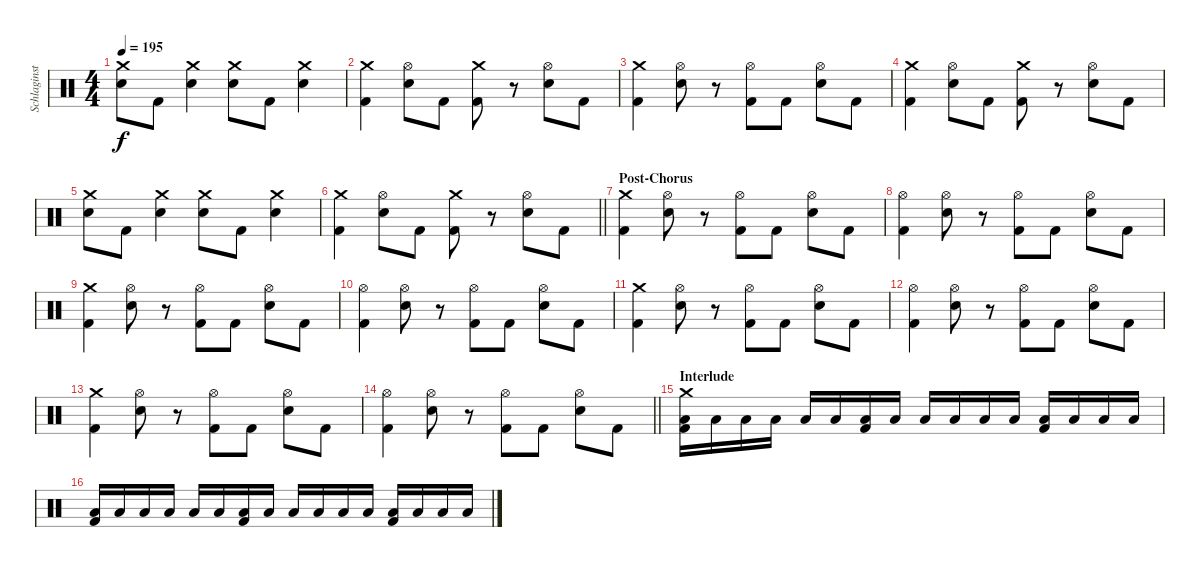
\track ("Schlaginstrumente - Auswahl" "Schlaginst") {instrument percussion}
\staff {score}
\articulation defaults
\ts (4 4)
\tempo 195
\clef neutral
\ks c
("Crash medium (hit)" "Snare (hit) 2").8{dy f} "Kick (hit) 2".8 ("Crash medium (hit)" "Snare (hit) 2").4 ("Crash medium (hit)" "Snare (hit) 2").8 "Kick (hit) 2".8 ("Crash medium (hit)" "Snare (hit) 2").4 |
("Crash medium (hit)" "Kick (hit) 2").4 ("Hi-Hat (open)" "Snare (hit) 2").8 "Kick (hit) 2".8 ("Crash medium (hit)" "Kick (hit) 2").8 r.8 ("Hi-Hat (open)" "Snare (hit) 2").8 "Kick (hit) 2".8 |
("Crash medium (hit)" "Kick (hit) 2").4 ("Hi-Hat (open)" "Snare (hit) 2").8 r.8 ("Hi-Hat (open)" "Kick (hit) 2").8 "Kick (hit) 2".8 ("Hi-Hat (open)" "Snare (hit) 2").8 "Kick (hit) 2".8 |
("Crash medium (hit)" "Kick (hit) 2").4 ("Hi-Hat (open)" "Snare (hit) 2").8 "Kick (hit) 2".8 ("Crash medium (hit)" "Kick (hit) 2").8 r.8 ("Hi-Hat (open)" "Snare (hit) 2").8 "Kick (hit) 2".8 |
("Crash medium (hit)" "Snare (hit) 2").8 "Kick (hit) 2".8 ("Crash medium (hit)" "Snare (hit) 2").4 ("Crash medium (hit)" "Snare (hit) 2").8 "Kick (hit) 2".8 ("Crash medium (hit)" "Snare (hit) 2").4 |
\barLineRight lightlight
("Crash medium (hit)" "Kick (hit) 2").4 ("Hi-Hat (open)" "Snare (hit) 2").8 "Kick (hit) 2".8 ("Crash medium (hit)" "Kick (hit) 2").8 r.8 ("Hi-Hat (open)" "Snare (hit) 2").8 "Kick (hit) 2".8 |
\section ("" "Post-Chorus")
("Crash medium (hit)" "Kick (hit) 2").4 ("Hi-Hat (open)" "Snare (hit) 2").8 r.8 ("Hi-Hat (open)" "Kick (hit) 2").8 "Kick (hit) 2".8 ("Hi-Hat (open)" "Snare (hit) 2").8 "Kick (hit) 2".8 |
("Hi-Hat (open)" "Kick (hit) 2").4 ("Hi-Hat (open)" "Snare (hit) 2").8 r.8 ("Hi-Hat (open)" "Kick (hit) 2").8 "Kick (hit) 2".8 ("Hi-Hat (open)" "Snare (hit) 2").8 "Kick (hit) 2".8 |
("Crash medium (hit)" "Kick (hit) 2").4 ("Hi-Hat (open)" "Snare (hit) 2").8 r.8 ("Hi-Hat (open)" "Kick (hit) 2").8 "Kick (hit) 2".8 ("Hi-Hat (open)" "Snare (hit) 2").8 "Kick (hit) 2".8 |
("Hi-Hat (open)" "Kick (hit) 2").4 ("Hi-Hat (open)" "Snare (hit) 2").8 r.8 ("Hi-Hat (open)" "Kick (hit) 2").8 "Kick (hit) 2".8 ("Hi-Hat (open)" "Snare (hit) 2").8 "Kick (hit) 2".8 |
("Crash medium (hit)" "Kick (hit) 2").4 ("Hi-Hat (open)" "Snare (hit) 2").8 r.8 ("Hi-Hat (open)" "Kick (hit) 2").8 "Kick (hit) 2".8 ("Hi-Hat (open)" "Snare (hit) 2").8 "Kick (hit) 2".8 |
("Hi-Hat (open)" "Kick (hit) 2").4 ("Hi-Hat (open)" "Snare (hit) 2").8 r.8 ("Hi-Hat (open)" "Kick (hit) 2").8 "Kick (hit) 2".8 ("Hi-Hat (open)" "Snare (hit) 2").8 "Kick (hit) 2".8 |
("Crash medium (hit)" "Kick (hit) 2").4 ("Hi-Hat (open)" "Snare (hit) 2").8 r.8 ("Hi-Hat (open)" "Kick (hit) 2").8 "Kick (hit) 2".8 ("Hi-Hat (open)" "Snare (hit) 2").8 "Kick (hit) 2".8 |
\barLineRight lightlight
("Hi-Hat (open)" "Kick (hit) 2").4 ("Hi-Hat (open)" "Snare (hit) 2").8 r.8 ("Hi-Hat (open)" "Kick (hit) 2").8 "Kick (hit) 2".8 ("Hi-Hat (open)" "Snare (hit) 2").8 "Kick (hit) 2".8 |
\section ("" "Interlude")
("Crash medium (hit)" "Low Floor Tom (hit)" "Kick (hit) 2").16 "Low Floor Tom (hit)".16 "Low Floor Tom (hit)".16 "Low Floor Tom (hit)".16 "Low Floor Tom (hit)".16 "Low Floor Tom (hit)".16 ("Low Floor Tom (hit)" "Kick (hit) 2").16 "Low Floor Tom (hit)".16 "Low Floor Tom (hit)".16 "Low Floor Tom (hit)".16 "Low Floor Tom (hit)".16 "Low Floor Tom (hit)".16 ("Low Floor Tom (hit)" "Kick (hit) 2").16 "Low Floor Tom (hit)".16 "Low Floor Tom (hit)".16 "Low Floor Tom (hit)".16 |
("Low Floor Tom (hit)" "Kick (hit) 2").16 "Low Floor Tom (hit)".16 "Low Floor Tom (hit)".16 "Low Floor Tom (hit)".16 "Low Floor Tom (hit)".16 "Low Floor Tom (hit)".16 ("Low Floor Tom (hit)" "Kick (hit) 2").16 "Low Floor Tom (hit)".16 "Low Floor Tom (hit)".16 "Low Floor Tom (hit)".16 "Low Floor Tom (hit)".16 "Low Floor Tom (hit)".16 ("Low Floor Tom (hit)" "Kick (hit) 2").16 "Low Floor Tom (hit)".16 "Low Floor Tom (hit)".16 "Low Floor Tom (hit)".16
